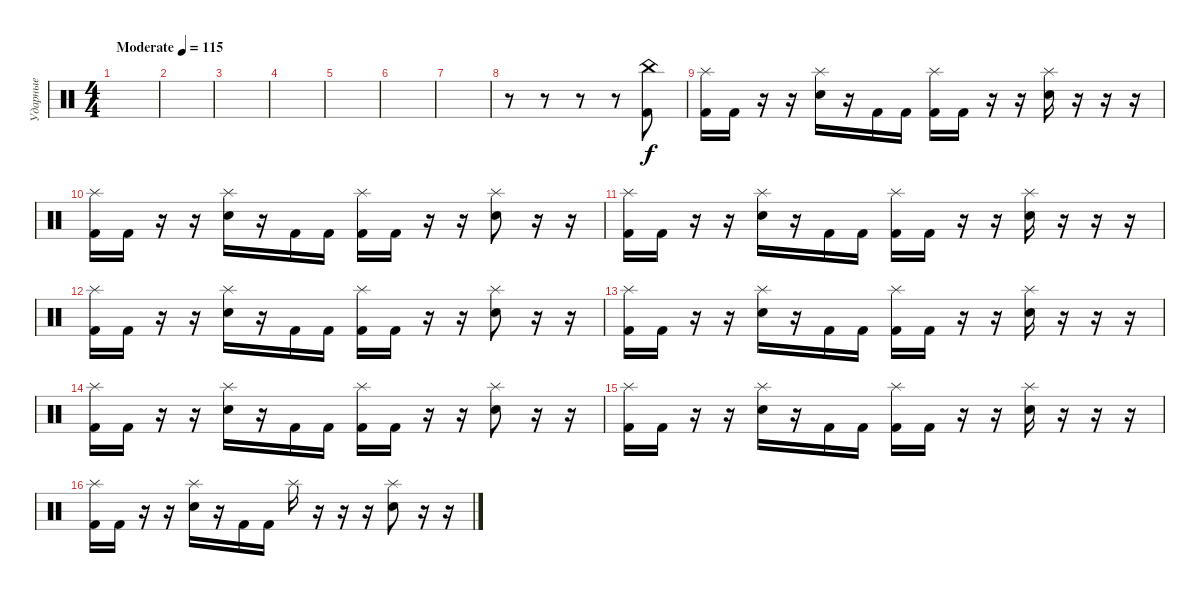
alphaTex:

\track ("Ударные" "Ударные") {instrument percussion}
\staff {score}
\articulation defaults
\ts (4 4)
\tempo (115 "Moderate")
\clef neutral
\ks c
|
|
|
|
|
|
|
r.8 r.8 r.8 r.8 ("China (hit)" "Kick (hit) 2").8 |
("Splash (hit)" "Kick (hit) 2").16 "Kick (hit) 2".16 r.16 r.16 ("Splash (hit)" "Electric Snare (hit)").16 r.16 "Kick (hit) 2".16 "Kick (hit) 2".16 ("Splash (hit)" "Kick (hit) 2").16 "Kick (hit) 2".16 r.16 r.16 ("Splash (hit)" "Electric Snare (hit)").16 r.16 r.16 r.16 |
("Splash (hit)" "Kick (hit) 2").16 "Kick (hit) 2".16 r.16 r.16 ("Splash (hit)" "Electric Snare (hit)").16 r.16 "Kick (hit) 2".16 "Kick (hit) 2".16 ("Splash (hit)" "Kick (hit) 2").16 "Kick (hit) 2".16 r.16 r.16 ("Splash (hit)" "Electric Snare (hit)").8 r.16 r.16 |
("Splash (hit)" "Kick (hit) 2").16 "Kick (hit) 2".16 r.16 r.16 ("Splash (hit)" "Electric Snare (hit)").16 r.16 "Kick (hit) 2".16 "Kick (hit) 2".16 ("Splash (hit)" "Kick (hit) 2").16 "Kick (hit) 2".16 r.16 r.16 ("Splash (hit)" "Electric Snare (hit)").16 r.16 r.16 r.16 |
("Splash (hit)" "Kick (hit) 2").16 "Kick (hit) 2".16 r.16 r.16 ("Splash (hit)" "Electric Snare (hit)").16 r.16 "Kick (hit) 2".16 "Kick (hit) 2".16 ("Splash (hit)" "Kick (hit) 2").16 "Kick (hit) 2".16 r.16 r.16 ("Splash (hit)" "Electric Snare (hit)").8 r.16 r.16 |
("Splash (hit)" "Kick (hit) 2").16 "Kick (hit) 2".16 r.16 r.16 ("Splash (hit)" "Electric Snare (hit)").16 r.16 "Kick (hit) 2".16 "Kick (hit) 2".16 ("Splash (hit)" "Kick (hit) 2").16 "Kick (hit) 2".16 r.16 r.16 ("Splash (hit)" "Electric Snare (hit)").16 r.16 r.16 r.16 |
("Splash (hit)" "Kick (hit) 2").16 "Kick (hit) 2".16 r.16 r.16 ("Splash (hit)" "Electric Snare (hit)").16 r.16 "Kick (hit) 2".16 "Kick (hit) 2".16 ("Splash (hit)" "Kick (hit) 2").16 "Kick (hit) 2".16 r.16 r.16 ("Splash (hit)" "Electric Snare (hit)").8 r.16 r.16 |
("Splash (hit)" "Kick (hit) 2").16 "Kick (hit) 2".16 r.16 r.16 ("Splash (hit)" "Electric Snare (hit)").16 r.16 "Kick (hit) 2".16 "Kick (hit) 2".16 ("Splash (hit)" "Kick (hit) 2").16 "Kick (hit) 2".16 r.16 r.16 ("Splash (hit)" "Electric Snare (hit)").16 r.16 r.16 r.16 |
("Splash (hit)" "Kick (hit) 2").16 "Kick (hit) 2".16 r.16 r.16 ("Splash (hit)" "Electric Snare (hit)").16 r.16 "Kick (hit) 2".16 "Kick (hit) 2".16 "Splash (hit)".16 r.16 r.16 r.16 ("Splash (hit)" "Electric Snare (hit)").8 r.16 r.16
